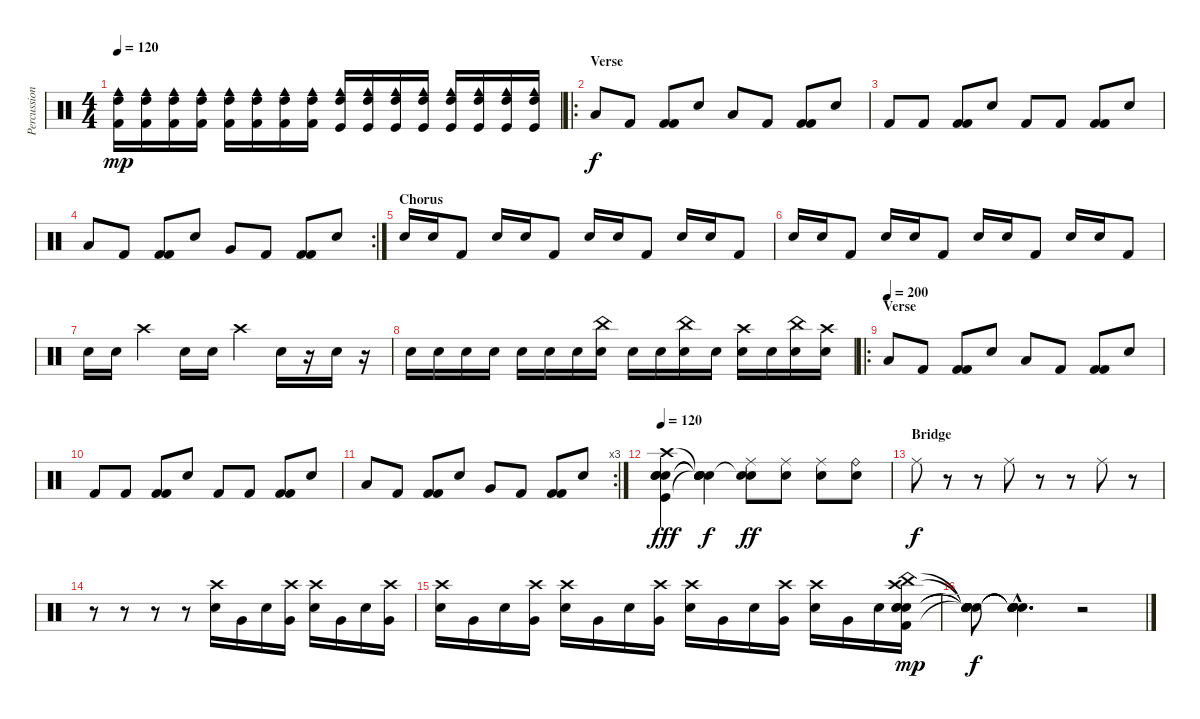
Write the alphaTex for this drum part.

\track ("Percussions" "Percussion") {instrument percussion}
\staff {score}
\articulation defaults
\ts (4 4)
\tempo 120
\clef neutral
\ks c
("Kick (hit) 2" "High Tom (hit)" "Cowbell medium (hit)").16{dy mp} ("Kick (hit) 2" "High Tom (hit)" "Cowbell medium (hit)").16 ("Kick (hit) 2" "High Tom (hit)" "Cowbell medium (hit)").16 ("Kick (hit) 2" "High Tom (hit)" "Cowbell medium (hit)").16 ("Kick (hit) 2" "High Tom (hit)" "Cowbell medium (hit)").16 ("Kick (hit) 2" "High Tom (hit)" "Cowbell medium (hit)").16 ("Kick (hit) 2" "High Tom (hit)" "Cowbell medium (hit)").16 ("Kick (hit) 2" "High Tom (hit)" "Cowbell medium (hit)").16 ("Kick (hit)" "High Tom (hit)" "Cowbell medium (hit)").16 ("Kick (hit)" "High Tom (hit)" "Cowbell medium (hit)").16 ("Kick (hit)" "High Tom (hit)" "Cowbell medium (hit)").16 ("Kick (hit)" "High Tom (hit)" "Cowbell medium (hit)").16 ("Kick (hit)" "High Tom (hit)" "Cowbell medium (hit)").16 ("Kick (hit)" "High Tom (hit)" "Cowbell medium (hit)").16 ("Kick (hit)" "High Tom (hit)" "Cowbell medium (hit)").16 ("Kick (hit)" "High Tom (hit)" "Cowbell medium (hit)").16 |
\ro
\section ("" "Verse")
"Low Tom (hit)".8{dy f} "Kick (hit) 2".8 ("Kick (hit) 2" "Kick (hit) 2").8 "Electric Snare (hit)".8 "Low Tom (hit)".8 "Kick (hit) 2".8 ("Kick (hit) 2" "Kick (hit) 2").8 "Snare (hit) 2".8 |
"Kick (hit) 2".8 "Kick (hit) 2".8 ("Kick (hit) 2" "Kick (hit) 2").8 "Electric Snare (hit)".8 "Kick (hit) 2".8 "Kick (hit) 2".8 ("Kick (hit) 2" "Kick (hit) 2").8 "Snare (hit) 2".8 |
\rc 2 "Low Tom (hit)".8 "Kick (hit) 2".8
("Kick (hit) 2" "Kick (hit) 2").8 "Electric Snare (hit)".8 "Very Low Tom (hit)".8 "Kick (hit) 2".8 ("Kick (hit) 2" "Kick (hit) 2").8 "Snare (hit) 2".8 |
\section ("" "Chorus")
"Electric Snare (hit)".16 "Electric Snare (hit)".16 "Kick (hit) 2".8 "Electric Snare (hit)".16 "Electric Snare (hit)".16 "Kick (hit) 2".8 "Electric Snare (hit)".16 "Electric Snare (hit)".16 "Kick (hit) 2".8 "Electric Snare (hit)".16 "Electric Snare (hit)".16 "Kick (hit) 2".8 |
"Electric Snare (hit)".16 "Electric Snare (hit)".16 "Kick (hit) 2".8 "Electric Snare (hit)".16 "Electric Snare (hit)".16 "Kick (hit) 2".8 "Electric Snare (hit)".16 "Electric Snare (hit)".16 "Kick (hit) 2".8 "Electric Snare (hit)".16 "Electric Snare (hit)".16 "Kick (hit) 2".8 |
"Electric Snare (hit)".16 "Electric Snare (hit)".16 "Crash high (hit)".4 "Electric Snare (hit)".16 "Electric Snare (hit)".16 "Crash high (hit)".4 "Electric Snare (hit)".16 r.16 "Electric Snare (hit)".16 r.16 |
"Electric Snare (hit)".16 "Electric Snare (hit)".16 "Snare (hit) 2".16 "Snare (hit) 2".16 "Electric Snare (hit)".16 "Electric Snare (hit)".16 "Snare (hit) 2".16 ("China (hit)" "Snare (hit) 2").16 "Electric Snare (hit)".16 "Electric Snare (hit)".16 ("China (hit)" "Snare (hit) 2").16 "Snare (hit) 2".16 ("Crash high (hit)" "Snare (hit) 2").16 "Snare (hit) 2".16 ("China (hit)" "Electric Snare (hit)").16 ("Crash high (hit)" "Electric Snare (hit)").16 |
\ro
\section ("" "Verse")
\tempo (200)
"Low Tom (hit)".8 "Kick (hit) 2".8 ("Kick (hit) 2" "Kick (hit) 2").8 "Electric Snare (hit)".8 "Low Tom (hit)".8 "Kick (hit) 2".8 ("Kick (hit) 2" "Kick (hit) 2").8 "Snare (hit) 2".8 |
"Kick (hit) 2".8 "Kick (hit) 2".8 ("Kick (hit) 2" "Kick (hit) 2").8 "Electric Snare (hit)".8 "Kick (hit) 2".8 "Kick (hit) 2".8 ("Kick (hit) 2" "Kick (hit) 2").8 "Snare (hit) 2".8 |
\rc 3 "Low Tom (hit)".8 "Kick (hit) 2".8
("Kick (hit) 2" "Kick (hit) 2").8 "Electric Snare (hit)".8 "Very Low Tom (hit)".8 "Kick (hit) 2".8 ("Kick (hit) 2" "Kick (hit) 2").8 "Snare (hit) 2".8 |
\tempo 120
("Crash high (hit)" "Electric Snare (hit)" "Electric Snare (hit)" "Electric Snare (hit)" "Kick (hit)").4{bd 240 dy fff} ("Snare (hit)"{t} "Snare (hit)"{t} "Snare (hit)"{t} "Snare (hit)"{t} "Snare (hit)"{t}).4{dy f} ("Snare (hit)"{t} "Ride (middle)" "Snare (hit)"{x}).8{dy ff} ("Ride (middle)" "Snare (hit)"{x}).8 ("Ride (middle)" "Snare (hit)"{x}).8 ("Ride (bell)" "Snare (hit)"{x}).8 |
\section ("" "Bridge")
"Ride (middle)".8{dy f} r.8 r.8 "Ride (middle)".8 r.8 r.8 "Ride (middle)".8 r.8 |
r.8 r.8 r.8 r.8 ("Electric Snare (hit)" "Crash high (hit)").16 "Very Low Tom (hit)".16 "Electric Snare (hit)".16 ("Very Low Tom (hit)" "Crash high (hit)").16 ("Electric Snare (hit)" "Crash high (hit)").16 "Very Low Tom (hit)".16 "Electric Snare (hit)".16 ("Very Low Tom (hit)" "Crash high (hit)").16 |
("Electric Snare (hit)" "Crash high (hit)").16 "Very Low Tom (hit)".16 "Electric Snare (hit)".16 ("Very Low Tom (hit)" "Crash high (hit)").16 ("Electric Snare (hit)" "Crash high (hit)").16 "Very Low Tom (hit)".16 "Electric Snare (hit)".16 ("Very Low Tom (hit)" "Crash high (hit)").16 ("Electric Snare (hit)" "Crash high (hit)").16 "Very Low Tom (hit)".16 "Electric Snare (hit)".16 ("Very Low Tom (hit)" "Crash high (hit)").16 ("Electric Snare (hit)" "Crash high (hit)").16 "Very Low Tom (hit)".16 "Electric Snare (hit)".16 ("China (hit)" "Crash high (hit)" "Electric Snare (hit)" "Electric Snare (hit)" "Electric Snare (hit)" "Kick (hit) 2").16{bd 240 dy mp} |
("Snare (hit)"{t} "Snare (hit)"{t} "Snare (hit)"{t} "Snare (hit)"{t} "Snare (hit)"{t} "Snare (hit)"{t}).8{dy f} ("Snare (hit)"{hac t} "Snare (hit)"{hac t} "Snare (hit)"{hac t} "Snare (hit)"{hac t} "Snare (hit)"{hac t} "Snare (hit)"{hac t}).4{d} r.2
